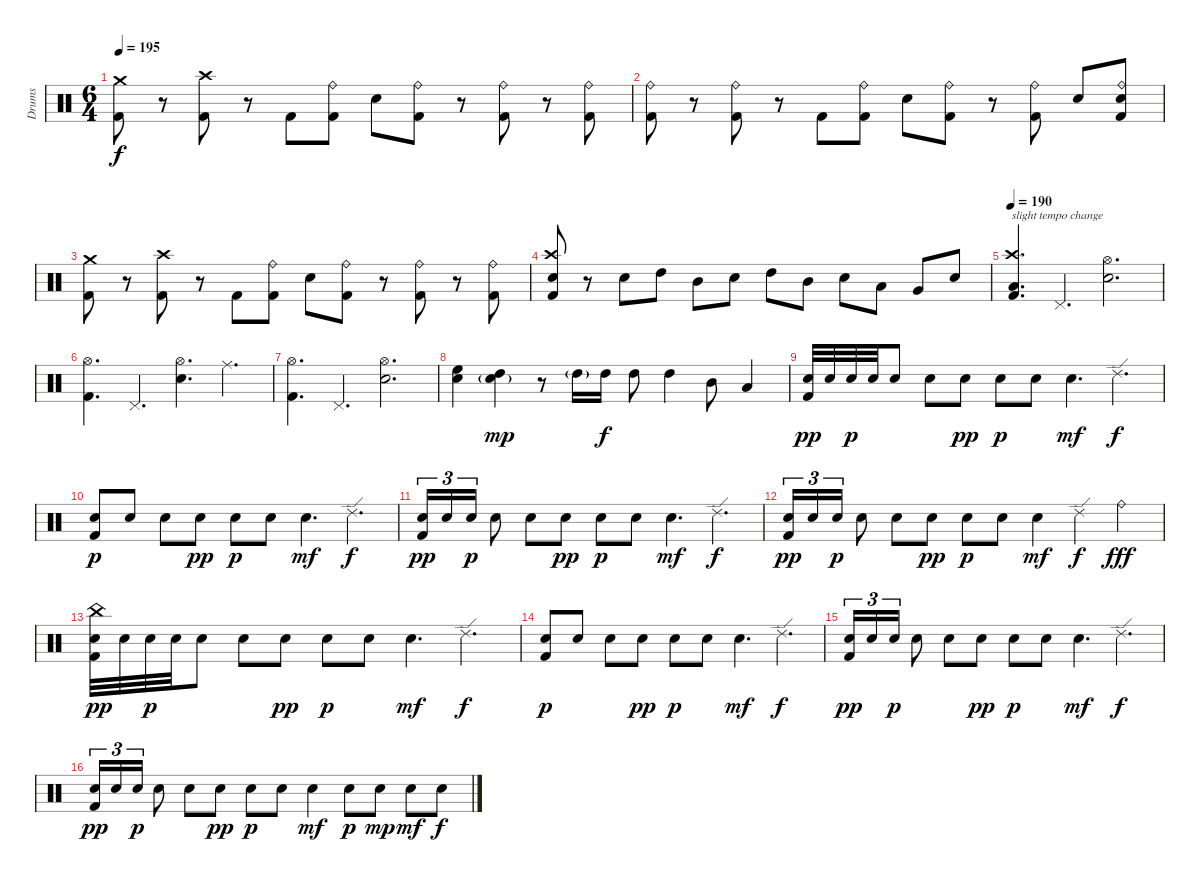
\track ("Drums" "Drums") {instrument percussion}
\staff {score}
\articulation defaults
\ts (6 4)
\tempo 195
\clef neutral
\ks c
("Crash medium (hit)" "Kick (hit) 2").8{dy f} r.8 ("Crash high (hit)" "Kick (hit) 2").8 r.8 "Kick (hit) 2".8 ("Ride (bell)" "Kick (hit) 2").8 "Electric Snare (hit)".8 ("Ride (bell)" "Kick (hit) 2").8 r.8 ("Ride (bell)" "Kick (hit) 2").8 r.8 ("Ride (bell)" "Kick (hit) 2").8 |
("Ride (bell)" "Kick (hit) 2").8 r.8 ("Ride (bell)" "Kick (hit) 2").8 r.8 "Kick (hit) 2".8 ("Ride (bell)" "Kick (hit) 2").8 "Electric Snare (hit)".8 ("Ride (bell)" "Kick (hit) 2").8 r.8 ("Ride (bell)" "Kick (hit) 2").8 "Electric Snare (hit)".8 ("Ride (bell)" "Electric Snare (hit)" "Kick (hit) 2").8 |
("Crash medium (hit)" "Kick (hit) 2").8 r.8 ("Crash high (hit)" "Kick (hit) 2").8 r.8 "Kick (hit) 2".8 ("Ride (bell)" "Kick (hit) 2").8 "Electric Snare (hit)".8 ("Ride (bell)" "Kick (hit) 2").8 r.8 ("Ride (bell)" "Kick (hit) 2").8 r.8 ("Ride (bell)" "Kick (hit) 2").8 |
("Crash high (hit)" "Electric Snare (hit)" "Kick (hit) 2").8 r.8 "Electric Snare (hit)".8 "High Tom (hit)".8 "Mid Tom (hit)".8 "Electric Snare (hit)".8 "High Tom (hit)".8 "Mid Tom (hit)".8 "Electric Snare (hit)".8 "Low Tom (hit)".8 "Very Low Tom (hit)".8 "Electric Snare (hit)".8 |
\tempo 190
("Crash high (hit)" "Low Tom (hit)" "Kick (hit) 2").4{d txt "slight tempo change" volume 10} "Pedal Hi-Hat (hit)".4{d} ("Hi-Hat (open)" "Electric Snare (hit)").2{d} |
("Hi-Hat (open)" "Kick (hit) 2").4{d} "Pedal Hi-Hat (hit)".4{d} ("Hi-Hat (open)" "Electric Snare (hit)").4{d} "Ride (middle)".4{d} |
("Hi-Hat (open)" "Kick (hit) 2").4{d} "Pedal Hi-Hat (hit)".4{d} ("Hi-Hat (open)" "Electric Snare (hit)").2{d} |
("High Floor Tom (hit)" "Electric Snare (hit)").4 ("High Tom (hit)" "Electric Snare (hit)"{g}).4{dy mp} r.8 "High Tom (hit)"{g}.16 "High Tom (hit)".16{dy f} "High Tom (hit)".8 "High Tom (hit)".4 "Mid Tom (hit)".8 "Low Tom (hit)".4 |
("Electric Snare (hit)" "Kick (hit) 2").32{dy pp} "Electric Snare (hit)".32 "Electric Snare (hit)".32{dy p} "Electric Snare (hit)".32 "Electric Snare (hit)".8 "Electric Snare (hit)".8 "Electric Snare (hit)".8{dy pp} "Electric Snare (hit)".8{dy p} "Electric Snare (hit)".8 "Electric Snare (hit)".4{d dy mf} "Ride (edge) 2".4{d dy f} |
("Electric Snare (hit)" "Kick (hit) 2").8{dy p} "Electric Snare (hit)".8 "Electric Snare (hit)".8 "Electric Snare (hit)".8{dy pp} "Electric Snare (hit)".8{dy p} "Electric Snare (hit)".8 "Electric Snare (hit)".4{d dy mf} "Ride (edge) 2".4{d dy f} |
("Electric Snare (hit)" "Kick (hit) 2").16{tu (3 2) dy pp} "Electric Snare (hit)".16{tu (3 2)} "Electric Snare (hit)".16{tu (3 2) dy p} "Electric Snare (hit)".8 "Electric Snare (hit)".8 "Electric Snare (hit)".8{dy pp} "Electric Snare (hit)".8{dy p} "Electric Snare (hit)".8 "Electric Snare (hit)".4{d dy mf} "Ride (edge) 2".4{d dy f} |
("Electric Snare (hit)" "Kick (hit) 2").16{tu (3 2) dy pp} "Electric Snare (hit)".16{tu (3 2)} "Electric Snare (hit)".16{tu (3 2) dy p} "Electric Snare (hit)".8 "Electric Snare (hit)".8 "Electric Snare (hit)".8{dy pp} "Electric Snare (hit)".8{dy p} "Electric Snare (hit)".8 "Electric Snare (hit)".4{dy mf} "Ride (edge) 2".4{dy f} "Ride (bell)".4{dy fff} |
("China (hit)" "Electric Snare (hit)" "Kick (hit) 2").32{dy pp} "Electric Snare (hit)".32 "Electric Snare (hit)".32{dy p} "Electric Snare (hit)".32 "Electric Snare (hit)".8 "Electric Snare (hit)".8 "Electric Snare (hit)".8{dy pp} "Electric Snare (hit)".8{dy p} "Electric Snare (hit)".8 "Electric Snare (hit)".4{d dy mf} "Ride (edge) 2".4{d dy f} |
("Electric Snare (hit)" "Kick (hit) 2").8{dy p} "Electric Snare (hit)".8 "Electric Snare (hit)".8 "Electric Snare (hit)".8{dy pp} "Electric Snare (hit)".8{dy p} "Electric Snare (hit)".8 "Electric Snare (hit)".4{d dy mf} "Ride (edge) 2".4{d dy f} |
("Electric Snare (hit)" "Kick (hit) 2").16{tu (3 2) dy pp} "Electric Snare (hit)".16{tu (3 2)} "Electric Snare (hit)".16{tu (3 2) dy p} "Electric Snare (hit)".8 "Electric Snare (hit)".8 "Electric Snare (hit)".8{dy pp} "Electric Snare (hit)".8{dy p} "Electric Snare (hit)".8 "Electric Snare (hit)".4{d dy mf} "Ride (edge) 2".4{d dy f} |
("Electric Snare (hit)" "Kick (hit) 2").16{tu (3 2) dy pp} "Electric Snare (hit)".16{tu (3 2)} "Electric Snare (hit)".16{tu (3 2) dy p} "Electric Snare (hit)".8 "Electric Snare (hit)".8 "Electric Snare (hit)".8{dy pp} "Electric Snare (hit)".8{dy p} "Electric Snare (hit)".8 "Electric Snare (hit)".4{dy mf} "Electric Snare (hit)".8{dy p} "Electric Snare (hit)".8{dy mp} "Electric Snare (hit)".8{dy mf} "Electric Snare (hit)".8{dy f}
